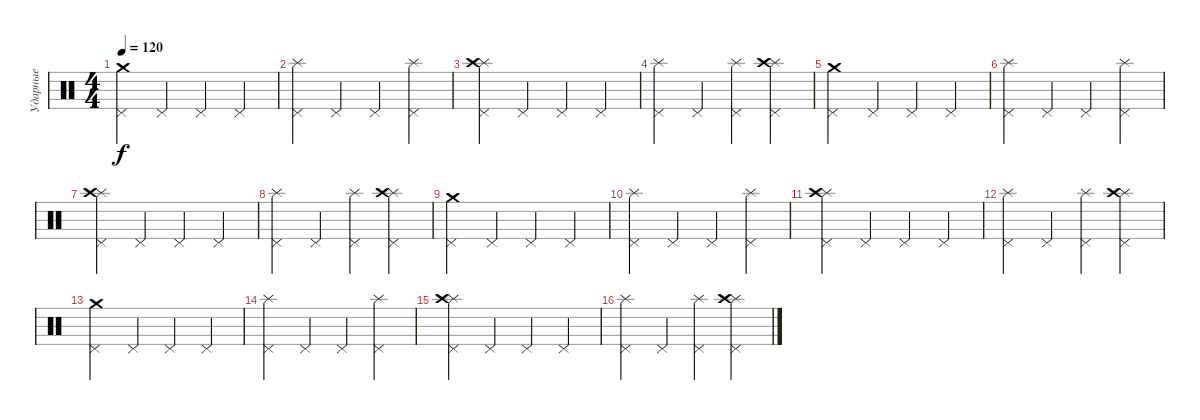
\track ("Ударные" "Ударные") {instrument percussion}
\staff {score}
\articulation defaults
\ts (4 4)
\tempo 120
\clef neutral
\ks c
("Pedal Hi-Hat (hit)" "Crash medium (hit)").4{dy f} "Pedal Hi-Hat (hit)".4 "Pedal Hi-Hat (hit)".4 "Pedal Hi-Hat (hit)".4 |
("Pedal Hi-Hat (hit)" "Splash (hit)").4 "Pedal Hi-Hat (hit)".4 "Pedal Hi-Hat (hit)".4 ("Pedal Hi-Hat (hit)" "Splash (hit)").4 |
("Pedal Hi-Hat (hit)" "Splash (hit)" "Crash high (hit)").4 "Pedal Hi-Hat (hit)".4 "Pedal Hi-Hat (hit)".4 "Pedal Hi-Hat (hit)".4 |
("Pedal Hi-Hat (hit)" "Splash (hit)").4 "Pedal Hi-Hat (hit)".4 ("Pedal Hi-Hat (hit)" "Splash (hit)").4 ("Pedal Hi-Hat (hit)" "Splash (hit)" "Crash high (hit)").4 |
("Pedal Hi-Hat (hit)" "Crash medium (hit)").4 "Pedal Hi-Hat (hit)".4 "Pedal Hi-Hat (hit)".4 "Pedal Hi-Hat (hit)".4 |
("Pedal Hi-Hat (hit)" "Splash (hit)").4 "Pedal Hi-Hat (hit)".4 "Pedal Hi-Hat (hit)".4 ("Pedal Hi-Hat (hit)" "Splash (hit)").4 |
("Pedal Hi-Hat (hit)" "Splash (hit)" "Crash high (hit)").4 "Pedal Hi-Hat (hit)".4 "Pedal Hi-Hat (hit)".4 "Pedal Hi-Hat (hit)".4 |
("Pedal Hi-Hat (hit)" "Splash (hit)").4 "Pedal Hi-Hat (hit)".4 ("Pedal Hi-Hat (hit)" "Splash (hit)").4 ("Pedal Hi-Hat (hit)" "Splash (hit)" "Crash high (hit)").4 |
("Pedal Hi-Hat (hit)" "Crash medium (hit)").4 "Pedal Hi-Hat (hit)".4 "Pedal Hi-Hat (hit)".4 "Pedal Hi-Hat (hit)".4 |
("Pedal Hi-Hat (hit)" "Splash (hit)").4 "Pedal Hi-Hat (hit)".4 "Pedal Hi-Hat (hit)".4 ("Pedal Hi-Hat (hit)" "Splash (hit)").4 |
("Pedal Hi-Hat (hit)" "Splash (hit)" "Crash high (hit)").4 "Pedal Hi-Hat (hit)".4 "Pedal Hi-Hat (hit)".4 "Pedal Hi-Hat (hit)".4 |
("Pedal Hi-Hat (hit)" "Splash (hit)").4 "Pedal Hi-Hat (hit)".4 ("Pedal Hi-Hat (hit)" "Splash (hit)").4 ("Pedal Hi-Hat (hit)" "Splash (hit)" "Crash high (hit)").4 |
("Pedal Hi-Hat (hit)" "Crash medium (hit)").4 "Pedal Hi-Hat (hit)".4 "Pedal Hi-Hat (hit)".4 "Pedal Hi-Hat (hit)".4 |
("Pedal Hi-Hat (hit)" "Splash (hit)").4 "Pedal Hi-Hat (hit)".4 "Pedal Hi-Hat (hit)".4 ("Pedal Hi-Hat (hit)" "Splash (hit)").4 |
("Pedal Hi-Hat (hit)" "Splash (hit)" "Crash high (hit)").4 "Pedal Hi-Hat (hit)".4 "Pedal Hi-Hat (hit)".4 "Pedal Hi-Hat (hit)".4 |
("Pedal Hi-Hat (hit)" "Splash (hit)").4 "Pedal Hi-Hat (hit)".4 ("Pedal Hi-Hat (hit)" "Splash (hit)").4 ("Pedal Hi-Hat (hit)" "Splash (hit)" "Crash high (hit)").4
